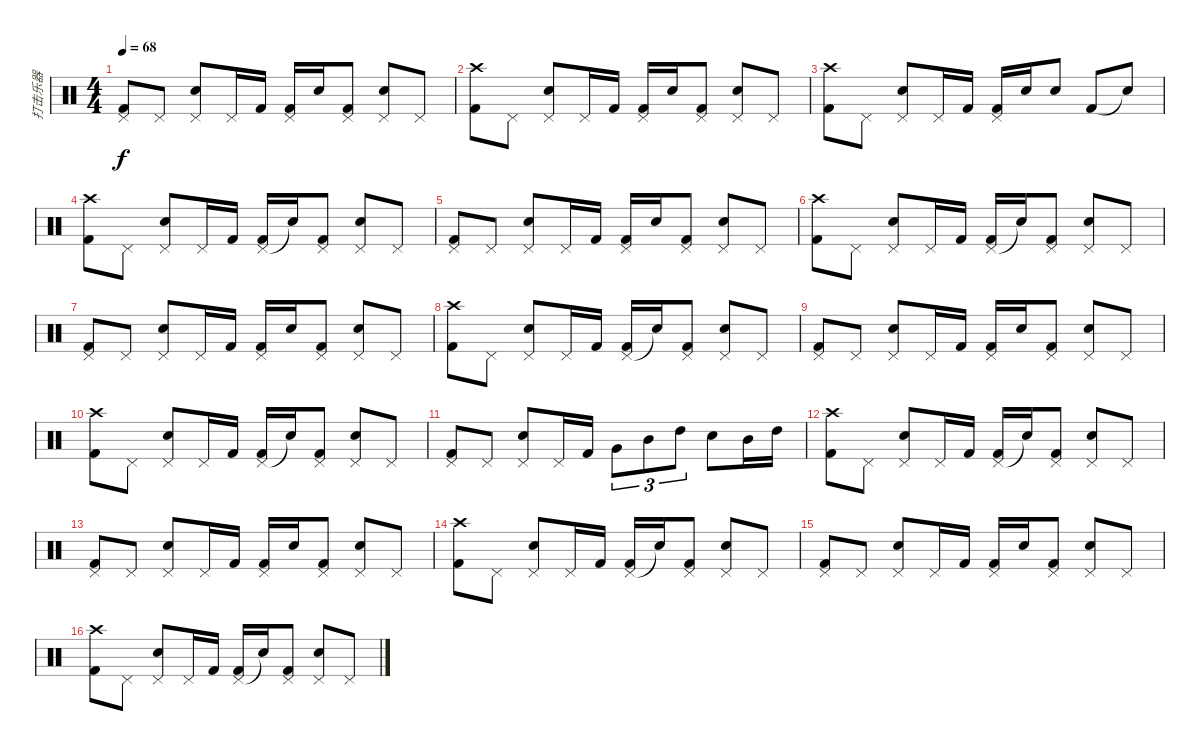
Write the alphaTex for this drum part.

\track ("打击乐器" "打击乐器") {instrument percussion}
\staff {score}
\articulation defaults
\ts (4 4)
\tempo 68
\clef neutral
\ks c
("Pedal Hi-Hat (hit)" "Kick (hit) 2").8{dy f} "Pedal Hi-Hat (hit)".8 ("Electric Snare (hit)" "Pedal Hi-Hat (hit)").8 "Pedal Hi-Hat (hit)".16 "Kick (hit) 2".16 ("Pedal Hi-Hat (hit)" "Kick (hit) 2").16 "Electric Snare (hit)".16 ("Kick (hit) 2" "Pedal Hi-Hat (hit)").8 ("Electric Snare (hit)" "Pedal Hi-Hat (hit)").8 "Pedal Hi-Hat (hit)".8 |
("Crash high (hit)" "Kick (hit) 2").8 "Pedal Hi-Hat (hit)".8 ("Electric Snare (hit)" "Pedal Hi-Hat (hit)").8 "Pedal Hi-Hat (hit)".16 "Kick (hit) 2".16 ("Pedal Hi-Hat (hit)" "Kick (hit) 2").16 "Electric Snare (hit)".16 ("Kick (hit) 2" "Pedal Hi-Hat (hit)").8 ("Electric Snare (hit)" "Pedal Hi-Hat (hit)").8 "Pedal Hi-Hat (hit)".8 |
("Crash high (hit)" "Kick (hit) 2").8 "Pedal Hi-Hat (hit)".8 ("Electric Snare (hit)" "Pedal Hi-Hat (hit)").8 "Pedal Hi-Hat (hit)".16 "Kick (hit) 2".16 ("Pedal Hi-Hat (hit)" "Kick (hit) 2").16 "Electric Snare (hit)".16 "Electric Snare (hit)".8 "Kick (hit) 2".8 "Snare (hit)"{t}.8 |
("Crash high (hit)" "Kick (hit) 2").8 "Pedal Hi-Hat (hit)".8 ("Electric Snare (hit)" "Pedal Hi-Hat (hit)").8 "Pedal Hi-Hat (hit)".16 "Kick (hit) 2".16 ("Pedal Hi-Hat (hit)" "Kick (hit) 2").16 "Electric Snare (hit)"{t}.16 ("Kick (hit) 2" "Pedal Hi-Hat (hit)").8 ("Electric Snare (hit)" "Pedal Hi-Hat (hit)").8 "Pedal Hi-Hat (hit)".8 |
("Pedal Hi-Hat (hit)" "Kick (hit) 2").8 "Pedal Hi-Hat (hit)".8 ("Electric Snare (hit)" "Pedal Hi-Hat (hit)").8 "Pedal Hi-Hat (hit)".16 "Kick (hit) 2".16 ("Pedal Hi-Hat (hit)" "Kick (hit) 2").16 "Electric Snare (hit)".16 ("Kick (hit) 2" "Pedal Hi-Hat (hit)").8 ("Electric Snare (hit)" "Pedal Hi-Hat (hit)").8 "Pedal Hi-Hat (hit)".8 |
("Crash high (hit)" "Kick (hit) 2").8 "Pedal Hi-Hat (hit)".8 ("Electric Snare (hit)" "Pedal Hi-Hat (hit)").8 "Pedal Hi-Hat (hit)".16 "Kick (hit) 2".16 ("Pedal Hi-Hat (hit)" "Kick (hit) 2").16 "Electric Snare (hit)"{t}.16 ("Kick (hit) 2" "Pedal Hi-Hat (hit)").8 ("Electric Snare (hit)" "Pedal Hi-Hat (hit)").8 "Pedal Hi-Hat (hit)".8 |
("Pedal Hi-Hat (hit)" "Kick (hit) 2").8 "Pedal Hi-Hat (hit)".8 ("Electric Snare (hit)" "Pedal Hi-Hat (hit)").8 "Pedal Hi-Hat (hit)".16 "Kick (hit) 2".16 ("Pedal Hi-Hat (hit)" "Kick (hit) 2").16 "Electric Snare (hit)".16 ("Kick (hit) 2" "Pedal Hi-Hat (hit)").8 ("Electric Snare (hit)" "Pedal Hi-Hat (hit)").8 "Pedal Hi-Hat (hit)".8 |
("Crash high (hit)" "Kick (hit) 2").8 "Pedal Hi-Hat (hit)".8 ("Electric Snare (hit)" "Pedal Hi-Hat (hit)").8 "Pedal Hi-Hat (hit)".16 "Kick (hit) 2".16 ("Pedal Hi-Hat (hit)" "Kick (hit) 2").16 "Electric Snare (hit)"{t}.16 ("Kick (hit) 2" "Pedal Hi-Hat (hit)").8 ("Electric Snare (hit)" "Pedal Hi-Hat (hit)").8 "Pedal Hi-Hat (hit)".8 |
("Pedal Hi-Hat (hit)" "Kick (hit) 2").8 "Pedal Hi-Hat (hit)".8 ("Electric Snare (hit)" "Pedal Hi-Hat (hit)").8 "Pedal Hi-Hat (hit)".16 "Kick (hit) 2".16 ("Pedal Hi-Hat (hit)" "Kick (hit) 2").16 "Electric Snare (hit)".16 ("Kick (hit) 2" "Pedal Hi-Hat (hit)").8 ("Electric Snare (hit)" "Pedal Hi-Hat (hit)").8 "Pedal Hi-Hat (hit)".8 |
("Crash high (hit)" "Kick (hit) 2").8 "Pedal Hi-Hat (hit)".8 ("Electric Snare (hit)" "Pedal Hi-Hat (hit)").8 "Pedal Hi-Hat (hit)".16 "Kick (hit) 2".16 ("Pedal Hi-Hat (hit)" "Kick (hit) 2").16 "Electric Snare (hit)"{t}.16 ("Kick (hit) 2" "Pedal Hi-Hat (hit)").8 ("Electric Snare (hit)" "Pedal Hi-Hat (hit)").8 "Pedal Hi-Hat (hit)".8 |
("Pedal Hi-Hat (hit)" "Kick (hit) 2").8 "Pedal Hi-Hat (hit)".8 ("Electric Snare (hit)" "Pedal Hi-Hat (hit)").8 "Pedal Hi-Hat (hit)".16 "Kick (hit) 2".16 "Very Low Tom (hit)".8{tu (3 2)} "Mid Tom (hit)".8{tu (3 2)} "High Tom (hit)".8{tu (3 2)} "Electric Snare (hit)".8 "Mid Tom (hit)".16 "High Tom (hit)".16 |
("Crash high (hit)" "Kick (hit) 2").8 "Pedal Hi-Hat (hit)".8 ("Electric Snare (hit)" "Pedal Hi-Hat (hit)").8 "Pedal Hi-Hat (hit)".16 "Kick (hit) 2".16 ("Pedal Hi-Hat (hit)" "Kick (hit) 2").16 "Electric Snare (hit)"{t}.16 ("Kick (hit) 2" "Pedal Hi-Hat (hit)").8 ("Electric Snare (hit)" "Pedal Hi-Hat (hit)").8 "Pedal Hi-Hat (hit)".8 |
("Pedal Hi-Hat (hit)" "Kick (hit) 2").8 "Pedal Hi-Hat (hit)".8 ("Electric Snare (hit)" "Pedal Hi-Hat (hit)").8 "Pedal Hi-Hat (hit)".16 "Kick (hit) 2".16 ("Pedal Hi-Hat (hit)" "Kick (hit) 2").16 "Electric Snare (hit)".16 ("Kick (hit) 2" "Pedal Hi-Hat (hit)").8 ("Electric Snare (hit)" "Pedal Hi-Hat (hit)").8 "Pedal Hi-Hat (hit)".8 |
("Crash high (hit)" "Kick (hit) 2").8 "Pedal Hi-Hat (hit)".8 ("Electric Snare (hit)" "Pedal Hi-Hat (hit)").8 "Pedal Hi-Hat (hit)".16 "Kick (hit) 2".16 ("Pedal Hi-Hat (hit)" "Kick (hit) 2").16 "Electric Snare (hit)"{t}.16 ("Kick (hit) 2" "Pedal Hi-Hat (hit)").8 ("Electric Snare (hit)" "Pedal Hi-Hat (hit)").8 "Pedal Hi-Hat (hit)".8 |
("Pedal Hi-Hat (hit)" "Kick (hit) 2").8 "Pedal Hi-Hat (hit)".8 ("Electric Snare (hit)" "Pedal Hi-Hat (hit)").8 "Pedal Hi-Hat (hit)".16 "Kick (hit) 2".16 ("Pedal Hi-Hat (hit)" "Kick (hit) 2").16 "Electric Snare (hit)".16 ("Kick (hit) 2" "Pedal Hi-Hat (hit)").8 ("Electric Snare (hit)" "Pedal Hi-Hat (hit)").8 "Pedal Hi-Hat (hit)".8 |
("Crash high (hit)" "Kick (hit) 2").8 "Pedal Hi-Hat (hit)".8 ("Electric Snare (hit)" "Pedal Hi-Hat (hit)").8 "Pedal Hi-Hat (hit)".16 "Kick (hit) 2".16 ("Pedal Hi-Hat (hit)" "Kick (hit) 2").16 "Electric Snare (hit)"{t}.16 ("Kick (hit) 2" "Pedal Hi-Hat (hit)").8 ("Electric Snare (hit)" "Pedal Hi-Hat (hit)").8 "Pedal Hi-Hat (hit)".8
